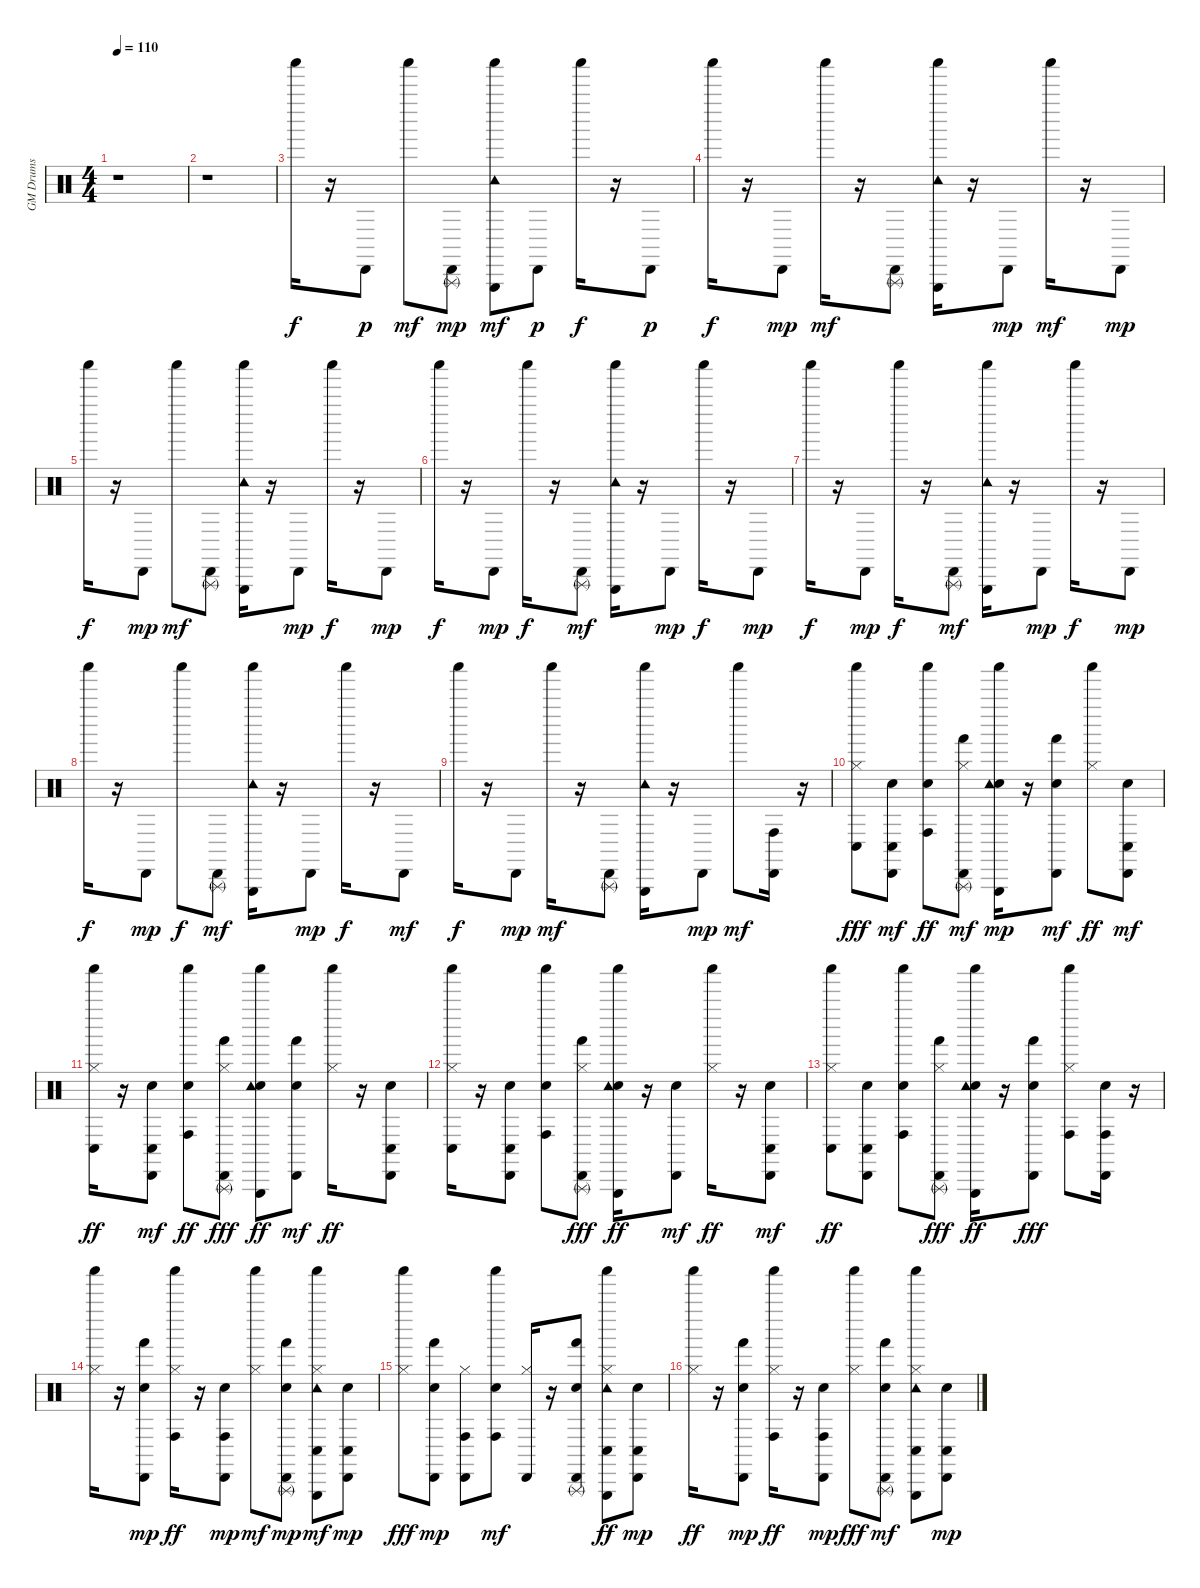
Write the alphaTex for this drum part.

\track ("GM Drums" "GM Drums") {instrument percussion}
\staff {score}
\articulation defaults
\ts (4 4)
\tempo 110
\clef neutral
\ks c
r.1{dy f} |
r.1 |
"Shaker (hit)".16 r.16 "Cabasa (hit)".8{dy p} "Shaker (hit)".8{dy mf} ("Cabasa (hit)" "Triangle (rnute)").8{dy mp} ("Tambourine (hit)" "Triangle (hit)" "Shaker (hit)").8{dy mf} "Cabasa (hit)".8{dy p} "Shaker (hit)".16{dy f} r.16 "Cabasa (hit)".8{dy p} |
"Shaker (hit)".16{dy f} r.16 "Cabasa (hit)".8{dy mp} "Shaker (hit)".16{dy mf} r.16 ("Cabasa (hit)" "Triangle (rnute)").8 ("Tambourine (hit)" "Triangle (hit)" "Shaker (hit)").16 r.16 "Cabasa (hit)".8{dy mp} "Shaker (hit)".16{dy mf} r.16 "Cabasa (hit)".8{dy mp} |
"Shaker (hit)".16{dy f} r.16 "Cabasa (hit)".8{dy mp} "Shaker (hit)".8{dy mf} ("Cabasa (hit)" "Triangle (rnute)").8 ("Tambourine (hit)" "Triangle (hit)" "Shaker (hit)").16 r.16 "Cabasa (hit)".8{dy mp} "Shaker (hit)".16{dy f} r.16 "Cabasa (hit)".8{dy mp} |
"Shaker (hit)".16{dy f} r.16 "Cabasa (hit)".8{dy mp} "Shaker (hit)".16{dy f} r.16 ("Cabasa (hit)" "Triangle (rnute)").8{dy mf} ("Tambourine (hit)" "Triangle (hit)" "Shaker (hit)").16 r.16 "Cabasa (hit)".8{dy mp} "Shaker (hit)".16{dy f} r.16 "Cabasa (hit)".8{dy mp} |
"Shaker (hit)".16{dy f} r.16 "Cabasa (hit)".8{dy mp} "Shaker (hit)".16{dy f} r.16 ("Cabasa (hit)" "Triangle (rnute)").8{dy mf} ("Tambourine (hit)" "Triangle (hit)" "Shaker (hit)").16 r.16 "Cabasa (hit)".8{dy mp} "Shaker (hit)".16{dy f} r.16 "Cabasa (hit)".8{dy mp} |
"Shaker (hit)".16{dy f} r.16 "Cabasa (hit)".8{dy mp} "Shaker (hit)".8{dy f} ("Cabasa (hit)" "Triangle (rnute)").8{dy mf} ("Tambourine (hit)" "Triangle (hit)" "Shaker (hit)").16 r.16 "Cabasa (hit)".8{dy mp} "Shaker (hit)".16{dy f} r.16 "Cabasa (hit)".8{dy mf} |
"Shaker (hit)".16{dy f} r.16 "Cabasa (hit)".8{dy mp} "Shaker (hit)".16{dy mf} r.16 ("Cabasa (hit)" "Triangle (rnute)").8 ("Tambourine (hit)" "Triangle (hit)" "Shaker (hit)").16 r.16 "Cabasa (hit)".8{dy mp} "Shaker (hit)".8{dy mf} ("Cabasa (hit)" "Conga high (hit)").16 r.16 |
("Hi-Hat (closed)" "Conga low (hit)" "Shaker (hit)").8{dy fff} ("Snare (hit)" "Conga low (hit)" "Cabasa (hit)").8{dy mf} ("Snare (hit)" "Conga high (hit)" "Shaker (hit)").8{dy ff} ("Hi-Hat (closed)" "Hand (hit)" "Cabasa (hit)" "Triangle (rnute)").8{dy mf} ("Snare (hit)" "Tambourine (hit)" "Triangle (hit)" "Shaker (hit)").16{dy mp} r.16 ("Snare (hit)" "Hand (hit)" "Cabasa (hit)").8{dy mf} ("Hi-Hat (closed)" "Shaker (hit)").8{dy ff} ("Snare (hit)" "Conga low (hit)" "Cabasa (hit)").8{dy mf} |
("Hi-Hat (closed)" "Conga low (hit)" "Shaker (hit)").16{dy ff} r.16 ("Snare (hit)" "Conga low (hit)" "Cabasa (hit)").8{dy mf} ("Snare (hit)" "Conga high (hit)" "Shaker (hit)").8{dy ff} ("Hi-Hat (closed)" "Hand (hit)" "Cabasa (hit)" "Triangle (rnute)").8{dy fff} ("Snare (hit)" "Tambourine (hit)" "Triangle (hit)" "Shaker (hit)").8{dy ff} ("Snare (hit)" "Hand (hit)" "Cabasa (hit)").8{dy mf} ("Hi-Hat (closed)" "Shaker (hit)").16{dy ff} r.16 ("Snare (hit)" "Conga low (hit)" "Cabasa (hit)").8 |
("Hi-Hat (closed)" "Conga low (hit)" "Shaker (hit)").16 r.16 ("Snare (hit)" "Conga low (hit)" "Cabasa (hit)").8 ("Snare (hit)" "Conga high (hit)" "Shaker (hit)").8 ("Hi-Hat (closed)" "Hand (hit)" "Cabasa (hit)" "Triangle (rnute)").8{dy fff} ("Snare (hit)" "Tambourine (hit)" "Triangle (hit)" "Shaker (hit)").16{dy ff} r.16 ("Snare (hit)" "Cabasa (hit)").8{dy mf} ("Hi-Hat (closed)" "Shaker (hit)").16{dy ff} r.16 ("Snare (hit)" "Conga low (hit)" "Cabasa (hit)").8{dy mf} |
("Hi-Hat (closed)" "Conga low (hit)" "Shaker (hit)").8{dy ff} ("Snare (hit)" "Conga low (hit)" "Cabasa (hit)").8 ("Snare (hit)" "Conga high (hit)" "Shaker (hit)").8 ("Hi-Hat (closed)" "Hand (hit)" "Cabasa (hit)" "Triangle (rnute)").8{dy fff} ("Snare (hit)" "Tambourine (hit)" "Triangle (hit)" "Shaker (hit)").16{dy ff} r.16 ("Snare (hit)" "Hand (hit)" "Cabasa (hit)").8{dy fff} ("Hi-Hat (closed)" "Conga high (hit)" "Shaker (hit)").8 ("Snare (hit)" "Conga high (hit)" "Cabasa (hit)").16 r.16 |
("Hi-Hat (closed)" "Shaker (hit)").16 r.16 ("Snare (hit)" "Hand (hit)" "Cabasa (hit)").8{dy mp} ("Hi-Hat (closed)" "Conga high (hit)" "Shaker (hit)").16{dy ff} r.16 ("Snare (hit)" "Conga high (hit)" "Cabasa (hit)").8{dy mp} ("Hi-Hat (closed)" "Shaker (hit)").8{dy mf} ("Snare (hit)" "Hand (hit)" "Cabasa (hit)" "Triangle (rnute)").8{dy mp} ("Hi-Hat (closed)" "Tambourine (hit)" "Conga low (hit)" "Triangle (hit)" "Shaker (hit)").8{dy mf} ("Snare (hit)" "Conga low (hit)" "Cabasa (hit)").8{dy mp} |
("Hi-Hat (closed)" "Shaker (hit)").8{dy fff} ("Snare (hit)" "Hand (hit)" "Cabasa (hit)").8{dy mp} ("Hi-Hat (closed)" "Conga high (hit)" "Cabasa (hit)").8 ("Snare (hit)" "Conga high (hit)" "Shaker (hit)").8{dy mf} ("Hi-Hat (closed)" "Cabasa (hit)").16 r.16 ("Snare (hit)" "Hand (hit)" "Cabasa (hit)" "Triangle (rnute)").8 ("Hi-Hat (closed)" "Tambourine (hit)" "Conga low (hit)" "Triangle (hit)" "Shaker (hit)").8{dy ff} ("Snare (hit)" "Conga low (hit)" "Cabasa (hit)").8{dy mp} |
("Hi-Hat (closed)" "Shaker (hit)").16{dy ff} r.16 ("Snare (hit)" "Hand (hit)" "Cabasa (hit)").8{dy mp} ("Hi-Hat (closed)" "Conga high (hit)" "Shaker (hit)").16{dy ff} r.16 ("Snare (hit)" "Conga high (hit)" "Cabasa (hit)").8{dy mp} ("Hi-Hat (closed)" "Shaker (hit)").8{dy fff} ("Snare (hit)" "Hand (hit)" "Cabasa (hit)" "Triangle (rnute)").8{dy mf} ("Hi-Hat (closed)" "Tambourine (hit)" "Conga low (hit)" "Triangle (hit)" "Shaker (hit)").8 ("Snare (hit)" "Conga low (hit)" "Cabasa (hit)").8{dy mp}
